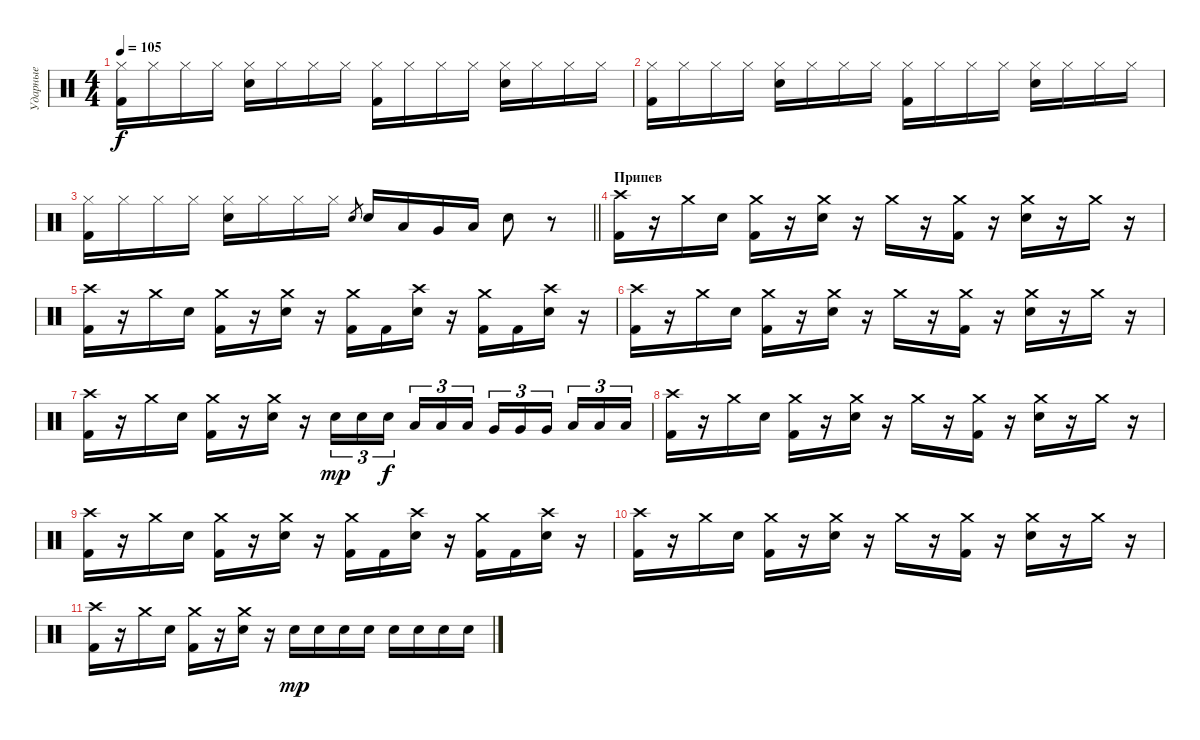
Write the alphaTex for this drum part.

\track ("Ударные" "Ударные") {instrument percussion}
\staff {score}
\articulation defaults
\ts (4 4)
\tempo 105
\clef neutral
\ks c
("Hi-Hat (closed)" "Kick (hit) 2").16{dy f} "Hi-Hat (closed)".16 "Hi-Hat (closed)".16 "Hi-Hat (closed)".16 ("Hi-Hat (closed)" "Electric Snare (hit)").16 "Hi-Hat (closed)".16 "Hi-Hat (closed)".16 "Hi-Hat (closed)".16 ("Hi-Hat (closed)" "Kick (hit) 2").16 "Hi-Hat (closed)".16 "Hi-Hat (closed)".16 "Hi-Hat (closed)".16 ("Hi-Hat (closed)" "Electric Snare (hit)").16 "Hi-Hat (closed)".16 "Hi-Hat (closed)".16 "Hi-Hat (closed)".16 |
("Hi-Hat (closed)" "Kick (hit) 2").16 "Hi-Hat (closed)".16 "Hi-Hat (closed)".16 "Hi-Hat (closed)".16 ("Hi-Hat (closed)" "Electric Snare (hit)").16 "Hi-Hat (closed)".16 "Hi-Hat (closed)".16 "Hi-Hat (closed)".16 ("Hi-Hat (closed)" "Kick (hit) 2").16 "Hi-Hat (closed)".16 "Hi-Hat (closed)".16 "Hi-Hat (closed)".16 ("Hi-Hat (closed)" "Electric Snare (hit)").16 "Hi-Hat (closed)".16 "Hi-Hat (closed)".16 "Hi-Hat (closed)".16 |
\barLineRight lightlight
("Hi-Hat (closed)" "Kick (hit) 2").16 "Hi-Hat (closed)".16 "Hi-Hat (closed)".16 "Hi-Hat (closed)".16 ("Hi-Hat (closed)" "Electric Snare (hit)").16 "Hi-Hat (closed)".16 "Hi-Hat (closed)".16 "Hi-Hat (closed)".16 "Electric Snare (hit)".8{gr} "Electric Snare (hit)".16 "Low Tom (hit)".16 "Very Low Tom (hit)".16 "Low Floor Tom (hit)".16 "Electric Snare (hit)".8 r.8 |
\section ("" "Припев")
("Crash high (hit)" "Kick (hit) 2").16 r.16 "Crash medium (hit)".16 "Electric Snare (hit)".16 ("Crash medium (hit)" "Kick (hit) 2").16 r.16 ("Crash medium (hit)" "Electric Snare (hit)").16 r.16 "Crash medium (hit)".16 r.16 ("Crash medium (hit)" "Kick (hit) 2").16 r.16 ("Crash medium (hit)" "Electric Snare (hit)").16 r.16 "Crash medium (hit)".16 r.16 |
("Crash high (hit)" "Kick (hit) 2").16 r.16 "Crash medium (hit)".16 "Electric Snare (hit)".16 ("Crash medium (hit)" "Kick (hit) 2").16 r.16 ("Crash medium (hit)" "Electric Snare (hit)").16 r.16 ("Crash medium (hit)" "Kick (hit) 2").16 "Kick (hit) 2".16 ("Crash high (hit)" "Electric Snare (hit)").16 r.16 ("Crash medium (hit)" "Kick (hit) 2").16 "Kick (hit) 2".16 ("Crash high (hit)" "Electric Snare (hit)").16 r.16 |
("Crash high (hit)" "Kick (hit) 2").16 r.16 "Crash medium (hit)".16 "Electric Snare (hit)".16 ("Crash medium (hit)" "Kick (hit) 2").16 r.16 ("Crash medium (hit)" "Electric Snare (hit)").16 r.16 "Crash medium (hit)".16 r.16 ("Crash medium (hit)" "Kick (hit) 2").16 r.16 ("Crash medium (hit)" "Electric Snare (hit)").16 r.16 "Crash medium (hit)".16 r.16 |
("Crash high (hit)" "Kick (hit) 2").16 r.16 "Crash medium (hit)".16 "Electric Snare (hit)".16 ("Crash medium (hit)" "Kick (hit) 2").16 r.16 ("Crash medium (hit)" "Electric Snare (hit)").16 r.16 "Electric Snare (hit)".16{tu (3 2) dy mp} "Electric Snare (hit)".16{tu (3 2)} "Electric Snare (hit)".16{tu (3 2) dy f beam splitsecondary} "Low Tom (hit)".16{tu (3 2)} "Low Tom (hit)".16{tu (3 2)} "Low Tom (hit)".16{tu (3 2)} "Very Low Tom (hit)".16{tu (3 2)} "Very Low Tom (hit)".16{tu (3 2)} "Very Low Tom (hit)".16{tu (3 2) beam splitsecondary} "Low Floor Tom (hit)".16{tu (3 2)} "Low Floor Tom (hit)".16{tu (3 2)} "Low Floor Tom (hit)".16{tu (3 2)} |
("Crash high (hit)" "Kick (hit) 2").16 r.16 "Crash medium (hit)".16 "Electric Snare (hit)".16 ("Crash medium (hit)" "Kick (hit) 2").16 r.16 ("Crash medium (hit)" "Electric Snare (hit)").16 r.16 "Crash medium (hit)".16 r.16 ("Crash medium (hit)" "Kick (hit) 2").16 r.16 ("Crash medium (hit)" "Electric Snare (hit)").16 r.16 "Crash medium (hit)".16 r.16 |
("Crash high (hit)" "Kick (hit) 2").16 r.16 "Crash medium (hit)".16 "Electric Snare (hit)".16 ("Crash medium (hit)" "Kick (hit) 2").16 r.16 ("Crash medium (hit)" "Electric Snare (hit)").16 r.16 ("Crash medium (hit)" "Kick (hit) 2").16 "Kick (hit) 2".16 ("Crash high (hit)" "Electric Snare (hit)").16 r.16 ("Crash medium (hit)" "Kick (hit) 2").16 "Kick (hit) 2".16 ("Crash high (hit)" "Electric Snare (hit)").16 r.16 |
("Crash high (hit)" "Kick (hit) 2").16 r.16 "Crash medium (hit)".16 "Electric Snare (hit)".16 ("Crash medium (hit)" "Kick (hit) 2").16 r.16 ("Crash medium (hit)" "Electric Snare (hit)").16 r.16 "Crash medium (hit)".16 r.16 ("Crash medium (hit)" "Kick (hit) 2").16 r.16 ("Crash medium (hit)" "Electric Snare (hit)").16 r.16 "Crash medium (hit)".16 r.16 |
("Crash high (hit)" "Kick (hit) 2").16 r.16 "Crash medium (hit)".16 "Electric Snare (hit)".16 ("Crash medium (hit)" "Kick (hit) 2").16 r.16 ("Crash medium (hit)" "Electric Snare (hit)").16 r.16 "Electric Snare (hit)".16{dy mp} "Electric Snare (hit)".16 "Electric Snare (hit)".16 "Electric Snare (hit)".16 "Electric Snare (hit)".16 "Electric Snare (hit)".16 "Electric Snare (hit)".16 "Electric Snare (hit)".16
